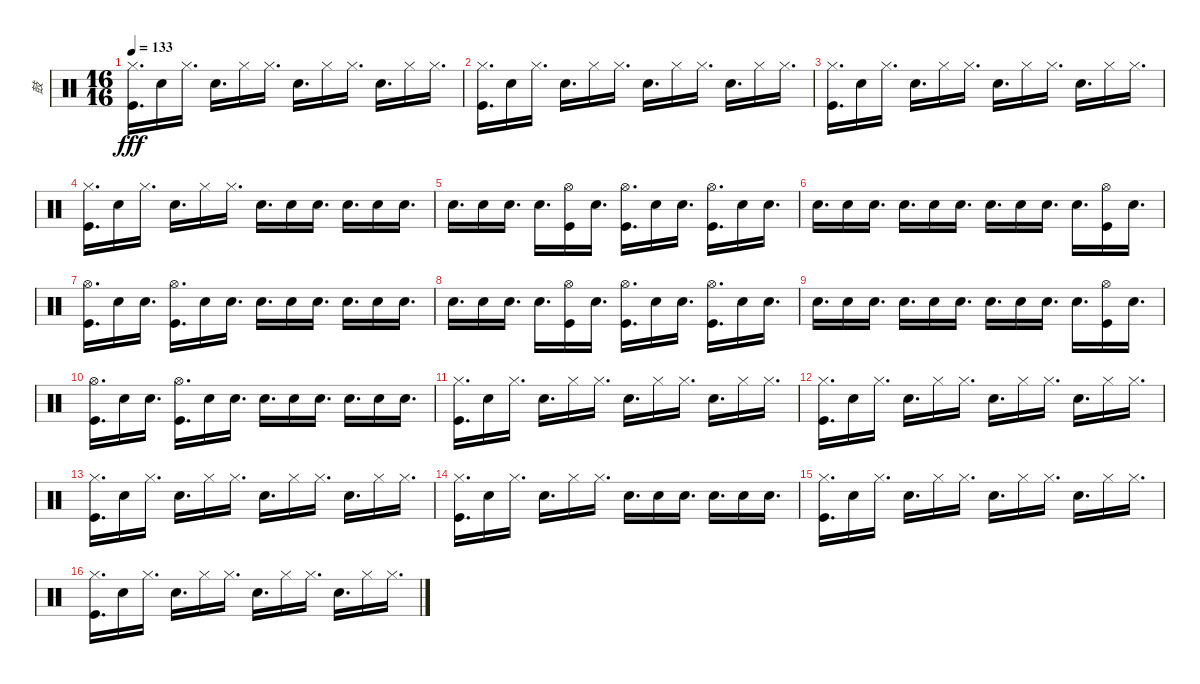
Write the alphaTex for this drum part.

\track ("鼓" "鼓") {instrument percussion}
\staff {score}
\articulation defaults
\ts (16 16)
\tempo 133
\clef neutral
\ks c
("Hi-Hat (closed)" "Kick (hit)").16{d dy fff} "Electric Snare (hit)".16 "Hi-Hat (closed)".16{d} "Electric Snare (hit)".16{d} "Hi-Hat (closed)".16 "Hi-Hat (closed)".16{d} "Snare (hit) 2".16{d} "Hi-Hat (closed)".16 "Hi-Hat (closed)".16{d} "Electric Snare (hit)".16{d} "Hi-Hat (closed)".16 "Hi-Hat (closed)".16{d} |
("Hi-Hat (closed)" "Kick (hit)").16{d} "Electric Snare (hit)".16 "Hi-Hat (closed)".16{d} "Electric Snare (hit)".16{d} "Hi-Hat (closed)".16 "Hi-Hat (closed)".16{d} "Snare (hit) 2".16{d} "Hi-Hat (closed)".16 "Hi-Hat (closed)".16{d} "Electric Snare (hit)".16{d} "Hi-Hat (closed)".16 "Hi-Hat (closed)".16{d} |
("Hi-Hat (closed)" "Kick (hit)").16{d} "Electric Snare (hit)".16 "Hi-Hat (closed)".16{d} "Electric Snare (hit)".16{d} "Hi-Hat (closed)".16 "Hi-Hat (closed)".16{d} "Snare (hit) 2".16{d} "Hi-Hat (closed)".16 "Hi-Hat (closed)".16{d} "Electric Snare (hit)".16{d} "Hi-Hat (closed)".16 "Hi-Hat (closed)".16{d} |
("Hi-Hat (closed)" "Kick (hit)").16{d} "Electric Snare (hit)".16 "Hi-Hat (closed)".16{d} "Electric Snare (hit)".16{d} "Hi-Hat (closed)".16 "Hi-Hat (closed)".16{d} "Electric Snare (hit)".16{d} "Electric Snare (hit)".16 "Electric Snare (hit)".16{d} "Electric Snare (hit)".16{d} "Electric Snare (hit)".16 "Electric Snare (hit)".16{d} |
"Snare (hit) 2".16{d} "Snare (hit) 2".16 "Snare (hit) 2".16{d} "Snare (hit) 2".16{d} ("Hi-Hat (open)" "Kick (hit)").16 "Snare (hit) 2".16{d} ("Hi-Hat (open)" "Kick (hit)").16{d} "Snare (hit) 2".16 "Snare (hit) 2".16{d} ("Hi-Hat (open)" "Kick (hit)").16{d} "Snare (hit) 2".16 "Snare (hit) 2".16{d} |
"Snare (hit) 2".16{d} "Snare (hit) 2".16 "Snare (hit) 2".16{d} "Snare (hit) 2".16{d} "Snare (hit) 2".16 "Snare (hit) 2".16{d} "Snare (hit) 2".16{d} "Snare (hit) 2".16 "Snare (hit) 2".16{d} "Snare (hit) 2".16{d} ("Hi-Hat (open)" "Kick (hit)").16 "Snare (hit) 2".16{d} |
("Hi-Hat (open)" "Kick (hit)").16{d} "Snare (hit) 2".16 "Snare (hit) 2".16{d} ("Hi-Hat (open)" "Kick (hit)").16{d} "Snare (hit) 2".16 "Snare (hit) 2".16{d} "Snare (hit) 2".16{d} "Snare (hit) 2".16 "Snare (hit) 2".16{d} "Snare (hit) 2".16{d} "Snare (hit) 2".16 "Snare (hit) 2".16{d} |
"Snare (hit) 2".16{d} "Snare (hit) 2".16 "Snare (hit) 2".16{d} "Snare (hit) 2".16{d} ("Hi-Hat (open)" "Kick (hit)").16 "Snare (hit) 2".16{d} ("Hi-Hat (open)" "Kick (hit)").16{d} "Snare (hit) 2".16 "Snare (hit) 2".16{d} ("Hi-Hat (open)" "Kick (hit)").16{d} "Snare (hit) 2".16 "Snare (hit) 2".16{d} |
"Snare (hit) 2".16{d} "Snare (hit) 2".16 "Snare (hit) 2".16{d} "Snare (hit) 2".16{d} "Snare (hit) 2".16 "Snare (hit) 2".16{d} "Snare (hit) 2".16{d} "Snare (hit) 2".16 "Snare (hit) 2".16{d} "Snare (hit) 2".16{d} ("Hi-Hat (open)" "Kick (hit)").16 "Snare (hit) 2".16{d} |
("Hi-Hat (open)" "Kick (hit)").16{d} "Snare (hit) 2".16 "Snare (hit) 2".16{d} ("Hi-Hat (open)" "Kick (hit)").16{d} "Snare (hit) 2".16 "Snare (hit) 2".16{d} "Snare (hit) 2".16{d} "Snare (hit) 2".16 "Snare (hit) 2".16{d} "Snare (hit) 2".16{d} "Snare (hit) 2".16 "Snare (hit) 2".16{d} |
("Hi-Hat (closed)" "Kick (hit)").16{d} "Electric Snare (hit)".16 "Hi-Hat (closed)".16{d} "Electric Snare (hit)".16{d} "Hi-Hat (closed)".16 "Hi-Hat (closed)".16{d} "Snare (hit) 2".16{d} "Hi-Hat (closed)".16 "Hi-Hat (closed)".16{d} "Electric Snare (hit)".16{d} "Hi-Hat (closed)".16 "Hi-Hat (closed)".16{d} |
("Hi-Hat (closed)" "Kick (hit)").16{d} "Electric Snare (hit)".16 "Hi-Hat (closed)".16{d} "Electric Snare (hit)".16{d} "Hi-Hat (closed)".16 "Hi-Hat (closed)".16{d} "Snare (hit) 2".16{d} "Hi-Hat (closed)".16 "Hi-Hat (closed)".16{d} "Electric Snare (hit)".16{d} "Hi-Hat (closed)".16 "Hi-Hat (closed)".16{d} |
("Hi-Hat (closed)" "Kick (hit)").16{d} "Electric Snare (hit)".16 "Hi-Hat (closed)".16{d} "Electric Snare (hit)".16{d} "Hi-Hat (closed)".16 "Hi-Hat (closed)".16{d} "Snare (hit) 2".16{d} "Hi-Hat (closed)".16 "Hi-Hat (closed)".16{d} "Electric Snare (hit)".16{d} "Hi-Hat (closed)".16 "Hi-Hat (closed)".16{d} |
("Hi-Hat (closed)" "Kick (hit)").16{d} "Electric Snare (hit)".16 "Hi-Hat (closed)".16{d} "Electric Snare (hit)".16{d} "Hi-Hat (closed)".16 "Hi-Hat (closed)".16{d} "Electric Snare (hit)".16{d} "Electric Snare (hit)".16 "Electric Snare (hit)".16{d} "Electric Snare (hit)".16{d} "Electric Snare (hit)".16 "Electric Snare (hit)".16{d} |
("Hi-Hat (closed)" "Kick (hit)").16{d} "Electric Snare (hit)".16 "Hi-Hat (closed)".16{d} "Electric Snare (hit)".16{d} "Hi-Hat (closed)".16 "Hi-Hat (closed)".16{d} "Snare (hit) 2".16{d} "Hi-Hat (closed)".16 "Hi-Hat (closed)".16{d} "Electric Snare (hit)".16{d} "Hi-Hat (closed)".16 "Hi-Hat (closed)".16{d} |
("Hi-Hat (closed)" "Kick (hit)").16{d} "Electric Snare (hit)".16 "Hi-Hat (closed)".16{d} "Electric Snare (hit)".16{d} "Hi-Hat (closed)".16 "Hi-Hat (closed)".16{d} "Snare (hit) 2".16{d} "Hi-Hat (closed)".16 "Hi-Hat (closed)".16{d} "Electric Snare (hit)".16{d} "Hi-Hat (closed)".16 "Hi-Hat (closed)".16{d}
